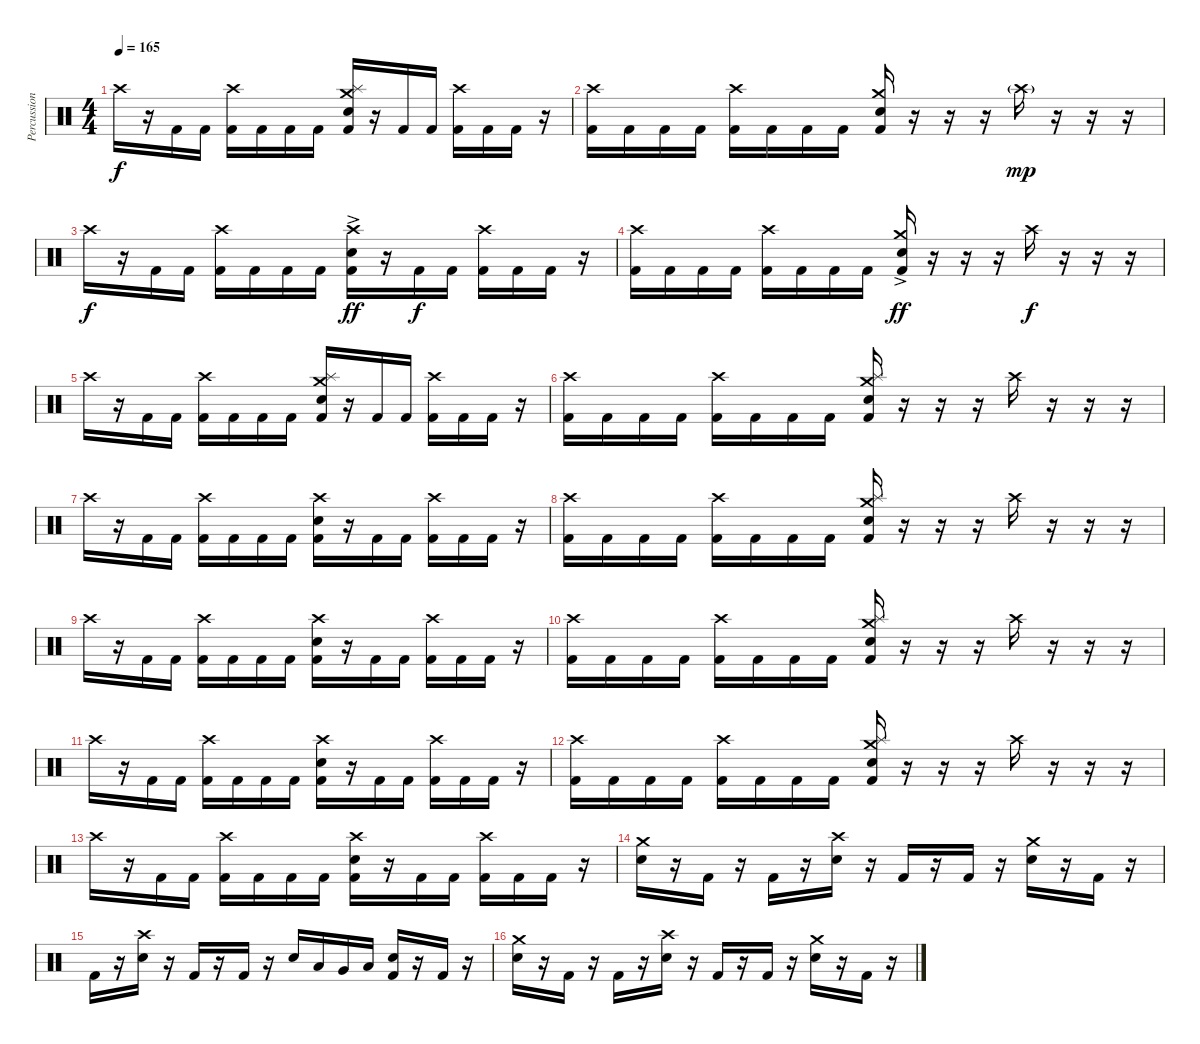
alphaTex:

\track ("Percussion" "Percussion") {instrument percussion}
\staff {score}
\articulation defaults
\ts (4 4)
\tempo 165
\clef neutral
\ks c "Crash high (hit)".16{dy f}
r.16 "Kick (hit) 2".16 "Kick (hit) 2".16 ("Crash high (hit)" "Kick (hit) 2").16 "Kick (hit) 2".16 "Kick (hit) 2".16 "Kick (hit) 2".16 ("Crash medium (hit)" "Splash (hit)" "Electric Snare (hit)" "Kick (hit) 2").16 r.16 "Kick (hit) 2".16 "Kick (hit) 2".16 ("Crash high (hit)" "Kick (hit) 2").16 "Kick (hit) 2".16 "Kick (hit) 2".16 r.16 |
("Crash high (hit)" "Kick (hit) 2").16 "Kick (hit) 2".16 "Kick (hit) 2".16 "Kick (hit) 2".16 ("Crash high (hit)" "Kick (hit) 2").16 "Kick (hit) 2".16 "Kick (hit) 2".16 "Kick (hit) 2".16 ("Crash medium (hit)" "Electric Snare (hit)" "Kick (hit) 2").16 r.16 r.16 r.16 "Crash high (hit)"{g}.16{dy mp} r.16 r.16 r.16 |
"Crash high (hit)".16{dy f} r.16 "Kick (hit) 2".16 "Kick (hit) 2".16 ("Crash high (hit)" "Kick (hit) 2").16 "Kick (hit) 2".16 "Kick (hit) 2".16 "Kick (hit) 2".16 ("Crash high (hit)"{ac} "Electric Snare (hit)" "Kick (hit) 2").16{dy ff} r.16 "Kick (hit) 2".16{dy f} "Kick (hit) 2".16 ("Crash high (hit)" "Kick (hit) 2").16 "Kick (hit) 2".16 "Kick (hit) 2".16 r.16 |
("Crash high (hit)" "Kick (hit) 2").16 "Kick (hit) 2".16 "Kick (hit) 2".16 "Kick (hit) 2".16 ("Crash high (hit)" "Kick (hit) 2").16 "Kick (hit) 2".16 "Kick (hit) 2".16 "Kick (hit) 2".16 ("Crash medium (hit)"{ac} "Electric Snare (hit)" "Kick (hit) 2").16{dy ff} r.16 r.16 r.16 "Crash high (hit)".16{dy f} r.16 r.16 r.16 |
"Crash high (hit)".16 r.16 "Kick (hit) 2".16 "Kick (hit) 2".16 ("Crash high (hit)" "Kick (hit) 2").16 "Kick (hit) 2".16 "Kick (hit) 2".16 "Kick (hit) 2".16 ("Crash medium (hit)" "Splash (hit)" "Electric Snare (hit)" "Kick (hit) 2").16 r.16 "Kick (hit) 2".16 "Kick (hit) 2".16 ("Crash high (hit)" "Kick (hit) 2").16 "Kick (hit) 2".16 "Kick (hit) 2".16 r.16 |
("Crash high (hit)" "Kick (hit) 2").16 "Kick (hit) 2".16 "Kick (hit) 2".16 "Kick (hit) 2".16 ("Crash high (hit)" "Kick (hit) 2").16 "Kick (hit) 2".16 "Kick (hit) 2".16 "Kick (hit) 2".16 ("Splash (hit)" "Crash medium (hit)" "Electric Snare (hit)" "Kick (hit) 2").16 r.16 r.16 r.16 "Crash high (hit)".16 r.16 r.16 r.16 |
"Crash high (hit)".16 r.16 "Kick (hit) 2".16 "Kick (hit) 2".16 ("Crash high (hit)" "Kick (hit) 2").16 "Kick (hit) 2".16 "Kick (hit) 2".16 "Kick (hit) 2".16 ("Crash high (hit)" "Electric Snare (hit)" "Kick (hit) 2").16 r.16 "Kick (hit) 2".16 "Kick (hit) 2".16 ("Crash high (hit)" "Kick (hit) 2").16 "Kick (hit) 2".16 "Kick (hit) 2".16 r.16 |
("Crash high (hit)" "Kick (hit) 2").16 "Kick (hit) 2".16 "Kick (hit) 2".16 "Kick (hit) 2".16 ("Crash high (hit)" "Kick (hit) 2").16 "Kick (hit) 2".16 "Kick (hit) 2".16 "Kick (hit) 2".16 ("Splash (hit)" "Crash medium (hit)" "Electric Snare (hit)" "Kick (hit) 2").16 r.16 r.16 r.16 "Crash high (hit)".16 r.16 r.16 r.16 |
"Crash high (hit)".16 r.16 "Kick (hit) 2".16 "Kick (hit) 2".16 ("Crash high (hit)" "Kick (hit) 2").16 "Kick (hit) 2".16 "Kick (hit) 2".16 "Kick (hit) 2".16 ("Crash high (hit)" "Electric Snare (hit)" "Kick (hit) 2").16 r.16 "Kick (hit) 2".16 "Kick (hit) 2".16 ("Crash high (hit)" "Kick (hit) 2").16 "Kick (hit) 2".16 "Kick (hit) 2".16 r.16 |
("Crash high (hit)" "Kick (hit) 2").16 "Kick (hit) 2".16 "Kick (hit) 2".16 "Kick (hit) 2".16 ("Crash high (hit)" "Kick (hit) 2").16 "Kick (hit) 2".16 "Kick (hit) 2".16 "Kick (hit) 2".16 ("Splash (hit)" "Crash medium (hit)" "Electric Snare (hit)" "Kick (hit) 2").16 r.16 r.16 r.16 "Crash high (hit)".16 r.16 r.16 r.16 |
"Crash high (hit)".16 r.16 "Kick (hit) 2".16 "Kick (hit) 2".16 ("Crash high (hit)" "Kick (hit) 2").16 "Kick (hit) 2".16 "Kick (hit) 2".16 "Kick (hit) 2".16 ("Crash high (hit)" "Electric Snare (hit)" "Kick (hit) 2").16 r.16 "Kick (hit) 2".16 "Kick (hit) 2".16 ("Crash high (hit)" "Kick (hit) 2").16 "Kick (hit) 2".16 "Kick (hit) 2".16 r.16 |
("Crash high (hit)" "Kick (hit) 2").16 "Kick (hit) 2".16 "Kick (hit) 2".16 "Kick (hit) 2".16 ("Crash high (hit)" "Kick (hit) 2").16 "Kick (hit) 2".16 "Kick (hit) 2".16 "Kick (hit) 2".16 ("Splash (hit)" "Crash medium (hit)" "Electric Snare (hit)" "Kick (hit) 2").16 r.16 r.16 r.16 "Crash high (hit)".16 r.16 r.16 r.16 |
"Crash high (hit)".16 r.16 "Kick (hit) 2".16 "Kick (hit) 2".16 ("Crash high (hit)" "Kick (hit) 2").16 "Kick (hit) 2".16 "Kick (hit) 2".16 "Kick (hit) 2".16 ("Crash high (hit)" "Electric Snare (hit)" "Kick (hit) 2").16 r.16 "Kick (hit) 2".16 "Kick (hit) 2".16 ("Crash high (hit)" "Kick (hit) 2").16 "Kick (hit) 2".16 "Kick (hit) 2".16 r.16 |
("Crash medium (hit)" "Electric Snare (hit)").16 r.16 "Kick (hit) 2".16 r.16 "Kick (hit) 2".16 r.16 ("Crash high (hit)" "Electric Snare (hit)").16 r.16 "Kick (hit) 2".16 r.16 "Kick (hit) 2".16 r.16 ("Crash medium (hit)" "Electric Snare (hit)").16 r.16 "Kick (hit) 2".16 r.16 |
"Kick (hit) 2".16 r.16 ("Crash high (hit)" "Electric Snare (hit)").16 r.16 "Kick (hit) 2".16 r.16 "Kick (hit) 2".16 r.16 "Electric Snare (hit)".16 "Low Tom (hit)".16 "Very Low Tom (hit)".16 "Low Floor Tom (hit)".16 ("Electric Snare (hit)" "Kick (hit) 2").16 r.16 "Kick (hit) 2".16 r.16 |
("Crash medium (hit)" "Electric Snare (hit)").16 r.16 "Kick (hit) 2".16 r.16 "Kick (hit) 2".16 r.16 ("Crash high (hit)" "Electric Snare (hit)").16 r.16 "Kick (hit) 2".16 r.16 "Kick (hit) 2".16 r.16 ("Crash medium (hit)" "Electric Snare (hit)").16 r.16 "Kick (hit) 2".16 r.16
